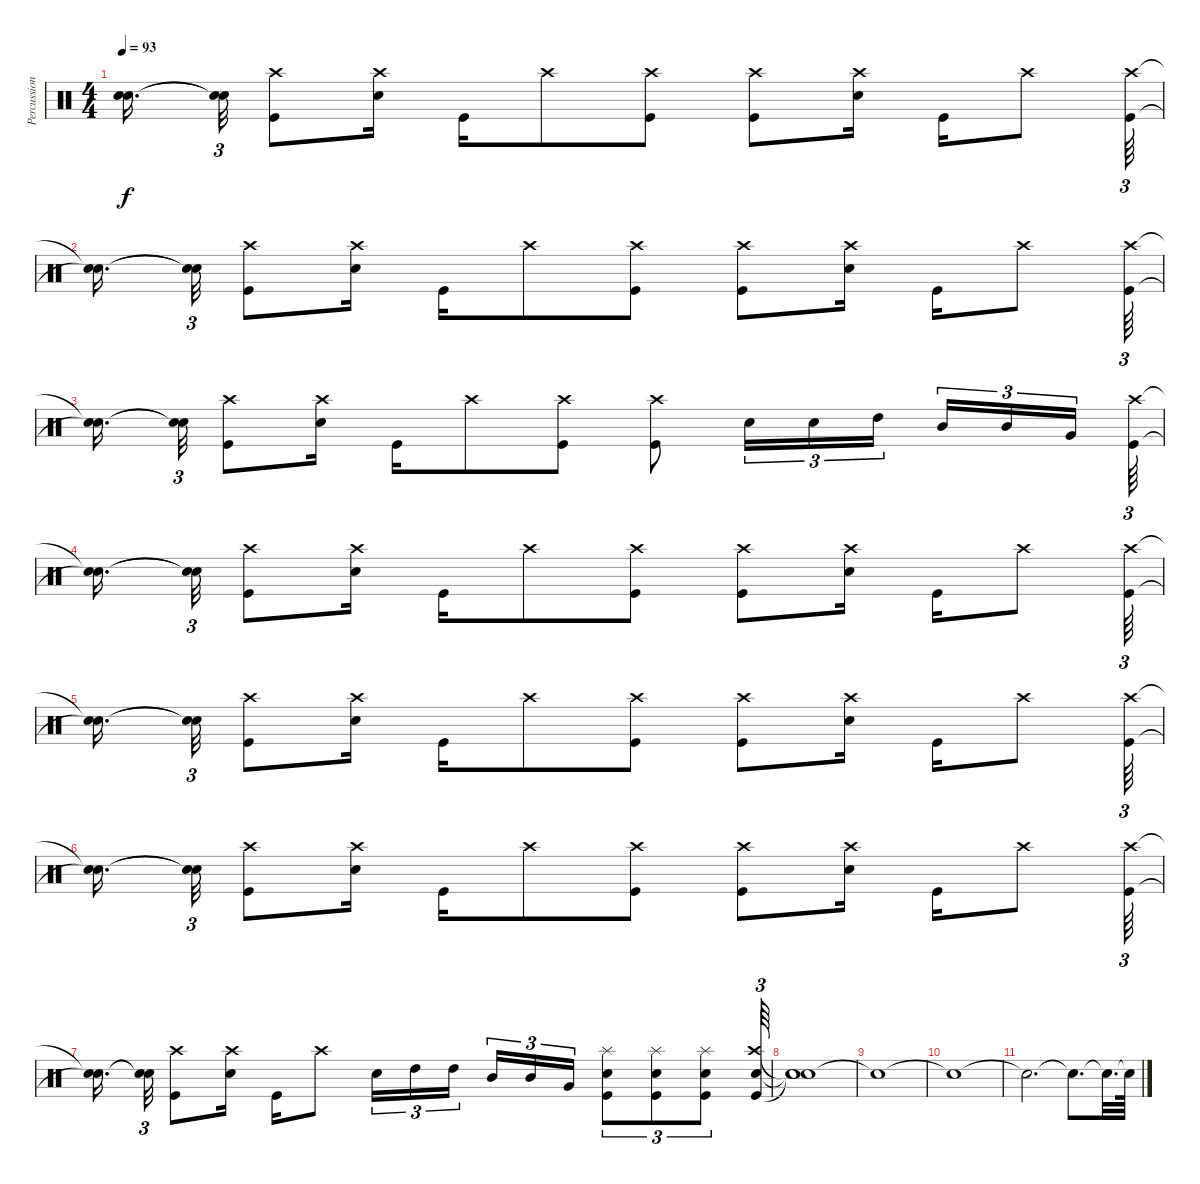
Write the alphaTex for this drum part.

\track ("Percussion" "Percussion") {instrument percussion}
\staff {score}
\articulation defaults
\ts (4 4)
\tempo 93
\clef neutral
\ks c
("Snare (hit)"{t} "Snare (hit)"{t}).16{d dy f beam splitsecondary} ("Snare (hit)"{t} "Snare (hit)"{t}).32{tu (3 2)} ("Crash high (hit)" "Kick (hit)").8 ("Crash high (hit)" "Snare (hit) 2").16 "Kick (hit)".16 "Crash high (hit)".8 ("Crash high (hit)" "Kick (hit)").8 ("Crash high (hit)" "Kick (hit)").8 ("Crash high (hit)" "Snare (hit) 2").16 "Kick (hit)".16 "Crash high (hit)".8 ("Crash high (hit)" "Kick (hit)").64{tu (3 2)} |
("Snare (hit)"{t} "Snare (hit)"{t}).16{d beam splitsecondary} ("Snare (hit)"{t} "Snare (hit)"{t}).32{tu (3 2)} ("Crash high (hit)" "Kick (hit)").8 ("Crash high (hit)" "Snare (hit) 2").16 "Kick (hit)".16 "Crash high (hit)".8 ("Crash high (hit)" "Kick (hit)").8 ("Crash high (hit)" "Kick (hit)").8 ("Crash high (hit)" "Snare (hit) 2").16 "Kick (hit)".16 "Crash high (hit)".8 ("Crash high (hit)" "Kick (hit)").64{tu (3 2)} |
("Snare (hit)"{t} "Snare (hit)"{t}).16{d beam splitsecondary} ("Snare (hit)"{t} "Snare (hit)"{t}).32{tu (3 2)} ("Crash high (hit)" "Kick (hit)").8 ("Crash high (hit)" "Snare (hit) 2").16 "Kick (hit)".16 "Crash high (hit)".8 ("Crash high (hit)" "Kick (hit)").8 ("Crash high (hit)" "Kick (hit)").8 "Snare (hit) 2".16{tu (3 2)} "Snare (hit) 2".16{tu (3 2)} "High Tom (hit)".16{tu (3 2) beam splitsecondary} "Mid Tom (hit)".16{tu (3 2)} "Mid Tom (hit)".16{tu (3 2)} "Very Low Tom (hit)".16{tu (3 2) beam splitsecondary} ("Crash high (hit)" "Kick (hit)").64{tu (3 2)} |
("Snare (hit)"{t} "Snare (hit)"{t}).16{d beam splitsecondary} ("Snare (hit)"{t} "Snare (hit)"{t}).32{tu (3 2)} ("Crash high (hit)" "Kick (hit)").8 ("Crash high (hit)" "Snare (hit) 2").16 "Kick (hit)".16 "Crash high (hit)".8 ("Crash high (hit)" "Kick (hit)").8 ("Crash high (hit)" "Kick (hit)").8 ("Crash high (hit)" "Snare (hit) 2").16 "Kick (hit)".16 "Crash high (hit)".8 ("Crash high (hit)" "Kick (hit)").64{tu (3 2)} |
("Snare (hit)"{t} "Snare (hit)"{t}).16{d beam splitsecondary} ("Snare (hit)"{t} "Snare (hit)"{t}).32{tu (3 2)} ("Crash high (hit)" "Kick (hit)").8 ("Crash high (hit)" "Snare (hit) 2").16 "Kick (hit)".16 "Crash high (hit)".8 ("Crash high (hit)" "Kick (hit)").8 ("Crash high (hit)" "Kick (hit)").8 ("Crash high (hit)" "Snare (hit) 2").16 "Kick (hit)".16 "Crash high (hit)".8 ("Crash high (hit)" "Kick (hit)").64{tu (3 2)} |
("Snare (hit)"{t} "Snare (hit)"{t}).16{d beam splitsecondary} ("Snare (hit)"{t} "Snare (hit)"{t}).32{tu (3 2)} ("Crash high (hit)" "Kick (hit)").8 ("Crash high (hit)" "Snare (hit) 2").16 "Kick (hit)".16 "Crash high (hit)".8 ("Crash high (hit)" "Kick (hit)").8 ("Crash high (hit)" "Kick (hit)").8 ("Crash high (hit)" "Snare (hit) 2").16 "Kick (hit)".16 "Crash high (hit)".8 ("Crash high (hit)" "Kick (hit)").64{tu (3 2)} |
("Snare (hit)"{t} "Snare (hit)"{t}).16{d beam splitsecondary} ("Snare (hit)"{t} "Snare (hit)"{t}).32{tu (3 2)} ("Crash high (hit)" "Kick (hit)").8 ("Crash high (hit)" "Snare (hit) 2").16 "Kick (hit)".16 "Crash high (hit)".8 "Snare (hit) 2".16{tu (3 2)} "High Tom (hit)".16{tu (3 2)} "High Tom (hit)".16{tu (3 2) beam splitsecondary} "Mid Tom (hit)".16{tu (3 2)} "Mid Tom (hit)".16{tu (3 2)} "Very Low Tom (hit)".16{tu (3 2)} ("Snare (hit) 2" "Splash (hit)" "Kick (hit)").8{tu (3 2)} ("Snare (hit) 2" "Splash (hit)" "Kick (hit)").8{tu (3 2)} ("Snare (hit) 2" "Splash (hit)" "Kick (hit)").8{tu (3 2)} ("Crash high (hit)" "Kick (hit)" "Snare (hit) 2").64{tu (3 2)} |
("Snare (hit)"{t} "Snare (hit)"{t} "Snare (hit)"{t}).1 |
"Snare (hit)"{t}.1 |
"Snare (hit)"{t}.1 |
"Snare (hit)"{t}.2{d} "Snare (hit)"{t}.8{d} "Snare (hit)"{t}.32{d} "Snare (hit)"{t}.64
